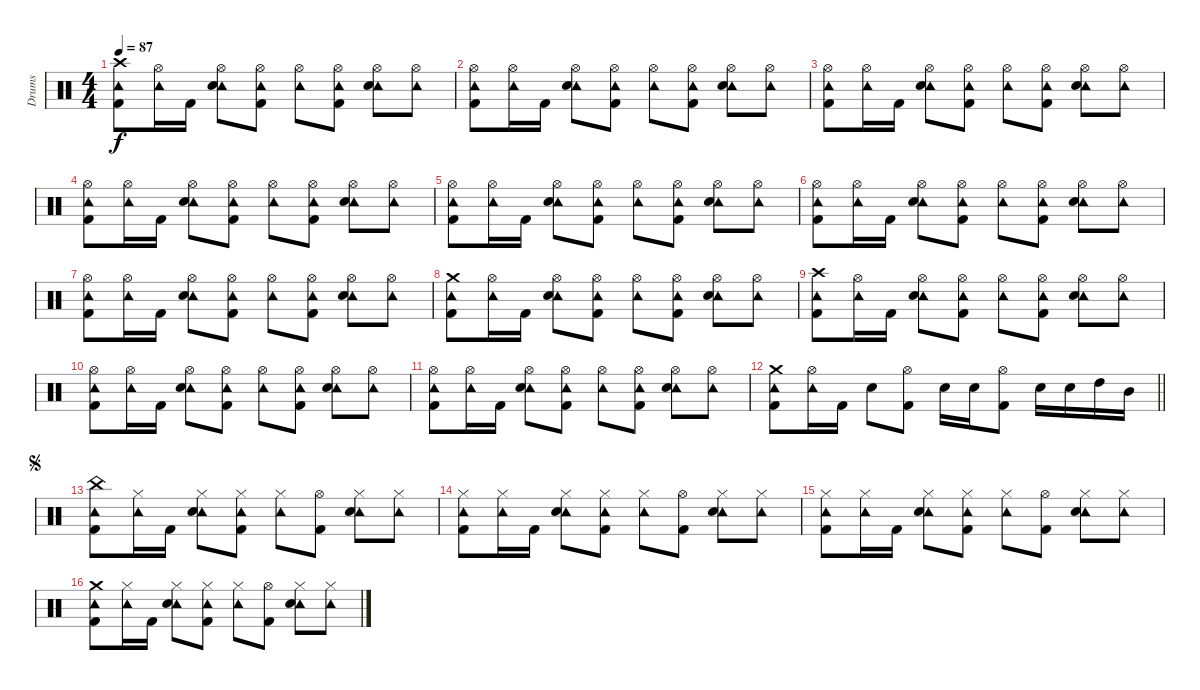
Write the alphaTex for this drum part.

\track ("Drums" "Drums") {instrument percussion}
\staff {score}
\articulation defaults
\ts (4 4)
\tempo 87
\clef neutral
\ks c
("Tambourine (hit)" "Crash high (hit)" "Kick (hit) 2").8{dy f volume 0} ("Tambourine (hit)" "Hi-Hat (open)").16{volume 6} "Kick (hit) 2".16 ("Tambourine (hit)" "Hi-Hat (open)" "Snare (hit) 2").8 ("Tambourine (hit)" "Hi-Hat (open)" "Kick (hit) 2").8 ("Tambourine (hit)" "Hi-Hat (open)").8 ("Tambourine (hit)" "Hi-Hat (open)" "Kick (hit) 2").8 ("Tambourine (hit)" "Hi-Hat (open)" "Snare (hit) 2").8 ("Tambourine (hit)" "Hi-Hat (open)").8 |
("Tambourine (hit)" "Hi-Hat (open)" "Kick (hit) 2").8 ("Tambourine (hit)" "Hi-Hat (open)").16 "Kick (hit) 2".16 ("Tambourine (hit)" "Hi-Hat (open)" "Snare (hit) 2").8 ("Tambourine (hit)" "Hi-Hat (open)" "Kick (hit) 2").8 ("Tambourine (hit)" "Hi-Hat (open)").8 ("Tambourine (hit)" "Hi-Hat (open)" "Kick (hit) 2").8 ("Tambourine (hit)" "Hi-Hat (open)" "Snare (hit) 2").8 ("Tambourine (hit)" "Hi-Hat (open)").8 |
("Tambourine (hit)" "Hi-Hat (open)" "Kick (hit) 2").8{volume 10} ("Tambourine (hit)" "Hi-Hat (open)").16 "Kick (hit) 2".16 ("Tambourine (hit)" "Hi-Hat (open)" "Snare (hit) 2").8 ("Tambourine (hit)" "Hi-Hat (open)" "Kick (hit) 2").8 ("Tambourine (hit)" "Hi-Hat (open)").8 ("Tambourine (hit)" "Hi-Hat (open)" "Kick (hit) 2").8 ("Tambourine (hit)" "Hi-Hat (open)" "Snare (hit) 2").8 ("Tambourine (hit)" "Hi-Hat (open)").8 |
("Tambourine (hit)" "Hi-Hat (open)" "Kick (hit) 2").8 ("Tambourine (hit)" "Hi-Hat (open)").16 "Kick (hit) 2".16 ("Tambourine (hit)" "Hi-Hat (open)" "Snare (hit) 2").8 ("Tambourine (hit)" "Hi-Hat (open)" "Kick (hit) 2").8 ("Tambourine (hit)" "Hi-Hat (open)").8 ("Tambourine (hit)" "Hi-Hat (open)" "Kick (hit) 2").8 ("Tambourine (hit)" "Hi-Hat (open)" "Snare (hit) 2").8 ("Tambourine (hit)" "Hi-Hat (open)").8 |
("Tambourine (hit)" "Hi-Hat (open)" "Kick (hit) 2").8{volume 14} ("Tambourine (hit)" "Hi-Hat (open)").16 "Kick (hit) 2".16 ("Tambourine (hit)" "Hi-Hat (open)" "Snare (hit) 2").8 ("Tambourine (hit)" "Hi-Hat (open)" "Kick (hit) 2").8 ("Tambourine (hit)" "Hi-Hat (open)").8 ("Tambourine (hit)" "Hi-Hat (open)" "Kick (hit) 2").8 ("Tambourine (hit)" "Hi-Hat (open)" "Snare (hit) 2").8 ("Tambourine (hit)" "Hi-Hat (open)").8 |
("Tambourine (hit)" "Hi-Hat (open)" "Kick (hit) 2").8 ("Tambourine (hit)" "Hi-Hat (open)").16 "Kick (hit) 2".16 ("Tambourine (hit)" "Hi-Hat (open)" "Snare (hit) 2").8 ("Tambourine (hit)" "Hi-Hat (open)" "Kick (hit) 2").8 ("Tambourine (hit)" "Hi-Hat (open)").8 ("Tambourine (hit)" "Hi-Hat (open)" "Kick (hit) 2").8 ("Tambourine (hit)" "Hi-Hat (open)" "Snare (hit) 2").8 ("Tambourine (hit)" "Hi-Hat (open)").8 |
("Tambourine (hit)" "Hi-Hat (open)" "Kick (hit) 2").8 ("Tambourine (hit)" "Hi-Hat (open)").16 "Kick (hit) 2".16 ("Tambourine (hit)" "Hi-Hat (open)" "Snare (hit) 2").8 ("Tambourine (hit)" "Hi-Hat (open)" "Kick (hit) 2").8 ("Tambourine (hit)" "Hi-Hat (open)").8 ("Tambourine (hit)" "Hi-Hat (open)" "Kick (hit) 2").8 ("Tambourine (hit)" "Hi-Hat (open)" "Snare (hit) 2").8 ("Tambourine (hit)" "Hi-Hat (open)").8 |
("Tambourine (hit)" "Crash medium (hit)" "Kick (hit) 2").8 ("Tambourine (hit)" "Hi-Hat (open)").16 "Kick (hit) 2".16 ("Tambourine (hit)" "Hi-Hat (open)" "Snare (hit) 2").8 ("Tambourine (hit)" "Hi-Hat (open)" "Kick (hit) 2").8 ("Tambourine (hit)" "Hi-Hat (open)").8 ("Tambourine (hit)" "Hi-Hat (open)" "Kick (hit) 2").8 ("Tambourine (hit)" "Hi-Hat (open)" "Snare (hit) 2").8 ("Tambourine (hit)" "Hi-Hat (open)").8 |
("Tambourine (hit)" "Crash high (hit)" "Kick (hit) 2").8 ("Tambourine (hit)" "Hi-Hat (open)").16 "Kick (hit) 2".16 ("Tambourine (hit)" "Hi-Hat (open)" "Snare (hit) 2").8 ("Tambourine (hit)" "Hi-Hat (open)" "Kick (hit) 2").8 ("Tambourine (hit)" "Hi-Hat (open)").8 ("Tambourine (hit)" "Hi-Hat (open)" "Kick (hit) 2").8 ("Tambourine (hit)" "Hi-Hat (open)" "Snare (hit) 2").8 ("Tambourine (hit)" "Hi-Hat (open)").8 |
("Tambourine (hit)" "Hi-Hat (open)" "Kick (hit) 2").8 ("Tambourine (hit)" "Hi-Hat (open)").16 "Kick (hit) 2".16 ("Tambourine (hit)" "Hi-Hat (open)" "Snare (hit) 2").8 ("Tambourine (hit)" "Hi-Hat (open)" "Kick (hit) 2").8 ("Tambourine (hit)" "Hi-Hat (open)").8 ("Tambourine (hit)" "Hi-Hat (open)" "Kick (hit) 2").8 ("Tambourine (hit)" "Hi-Hat (open)" "Snare (hit) 2").8 ("Tambourine (hit)" "Hi-Hat (open)").8 |
("Tambourine (hit)" "Hi-Hat (open)" "Kick (hit) 2").8 ("Tambourine (hit)" "Hi-Hat (open)").16 "Kick (hit) 2".16 ("Tambourine (hit)" "Hi-Hat (open)" "Snare (hit) 2").8 ("Tambourine (hit)" "Hi-Hat (open)" "Kick (hit) 2").8 ("Tambourine (hit)" "Hi-Hat (open)").8 ("Tambourine (hit)" "Hi-Hat (open)" "Kick (hit) 2").8 ("Tambourine (hit)" "Hi-Hat (open)" "Snare (hit) 2").8 ("Tambourine (hit)" "Hi-Hat (open)").8 |
\barLineRight lightlight
("Tambourine (hit)" "Crash medium (hit)" "Kick (hit) 2").8 ("Tambourine (hit)" "Hi-Hat (open)").16 "Kick (hit) 2".16 "Snare (hit) 2".8 ("Hi-Hat (open)" "Kick (hit) 2").8 "Snare (hit) 2".16 "Snare (hit) 2".16 ("Hi-Hat (open)" "Kick (hit) 2").8 "Snare (hit) 2".16 "Snare (hit) 2".16 "High Tom (hit)".16 "Mid Tom (hit)".16 |
\jump segno
("Tambourine (hit)" "China (hit)" "Kick (hit) 2").8 ("Tambourine (hit)" "Hi-Hat (closed)").16 "Kick (hit) 2".16 ("Tambourine (hit)" "Hi-Hat (closed)" "Snare (hit) 2").8 ("Tambourine (hit)" "Hi-Hat (closed)" "Kick (hit) 2").8 ("Tambourine (hit)" "Hi-Hat (closed)").8 ("Hi-Hat (open)" "Kick (hit) 2").8 ("Tambourine (hit)" "Hi-Hat (closed)" "Snare (hit) 2").8 ("Tambourine (hit)" "Hi-Hat (closed)").8 |
("Tambourine (hit)" "Hi-Hat (closed)" "Kick (hit) 2").8 ("Tambourine (hit)" "Hi-Hat (closed)").16 "Kick (hit) 2".16 ("Tambourine (hit)" "Hi-Hat (closed)" "Snare (hit) 2").8 ("Tambourine (hit)" "Hi-Hat (closed)" "Kick (hit) 2").8 ("Tambourine (hit)" "Hi-Hat (closed)").8 ("Hi-Hat (open)" "Kick (hit) 2").8 ("Tambourine (hit)" "Hi-Hat (closed)" "Snare (hit) 2").8 ("Tambourine (hit)" "Hi-Hat (closed)").8 |
("Tambourine (hit)" "Hi-Hat (closed)" "Kick (hit) 2").8 ("Tambourine (hit)" "Hi-Hat (closed)").16 "Kick (hit) 2".16 ("Tambourine (hit)" "Hi-Hat (closed)" "Snare (hit) 2").8 ("Tambourine (hit)" "Hi-Hat (closed)" "Kick (hit) 2").8 ("Tambourine (hit)" "Hi-Hat (closed)").8 ("Hi-Hat (open)" "Kick (hit) 2").8 ("Tambourine (hit)" "Hi-Hat (closed)" "Snare (hit) 2").8 ("Tambourine (hit)" "Hi-Hat (closed)").8 |
("Tambourine (hit)" "Crash medium (hit)" "Kick (hit) 2").8 ("Tambourine (hit)" "Hi-Hat (closed)").16 "Kick (hit) 2".16 ("Tambourine (hit)" "Hi-Hat (closed)" "Snare (hit) 2").8 ("Tambourine (hit)" "Hi-Hat (closed)" "Kick (hit) 2").8 ("Tambourine (hit)" "Hi-Hat (closed)").8 ("Hi-Hat (open)" "Kick (hit) 2").8 ("Tambourine (hit)" "Hi-Hat (closed)" "Snare (hit) 2").8 ("Tambourine (hit)" "Hi-Hat (closed)").8
